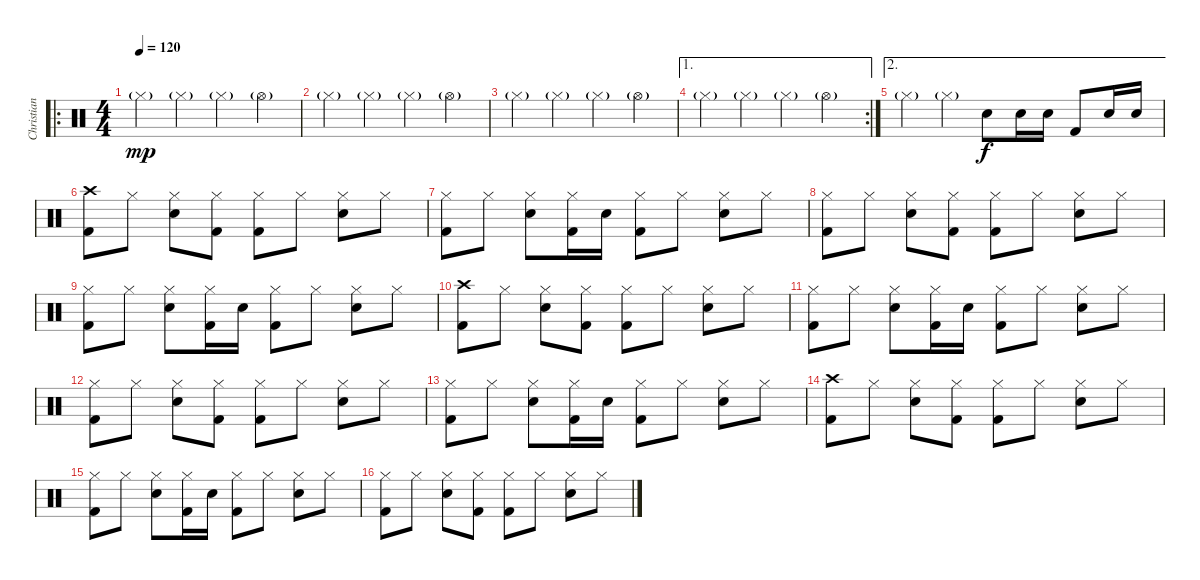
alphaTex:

\track ("Christian" "Christian") {instrument percussion}
\staff {score}
\articulation defaults
\ro
\ts (4 4)
\tempo 120
\clef neutral
\ks c "Hi-Hat (closed)"{g}.4{dy mp} "Hi-Hat (closed)"{g}.4 "Hi-Hat (closed)"{g}.4 "Hi-Hat (open)"{g}.4
|
"Hi-Hat (closed)"{g}.4 "Hi-Hat (closed)"{g}.4 "Hi-Hat (closed)"{g}.4 "Hi-Hat (open)"{g}.4 |
"Hi-Hat (closed)"{g}.4 "Hi-Hat (closed)"{g}.4 "Hi-Hat (closed)"{g}.4 "Hi-Hat (open)"{g}.4 |
\ae 1
\rc 2 "Hi-Hat (closed)"{g}.4 "Hi-Hat (closed)"{g}.4 "Hi-Hat (closed)"{g}.4 "Hi-Hat (open)"{g}.4
|
\ae 2 "Hi-Hat (closed)"{g}.4 "Hi-Hat (closed)"{g}.4 "Snare (hit) 2".8{dy f} "Snare (hit) 2".16 "Snare (hit) 2".16 "Kick (hit) 2".8 "Snare (hit) 2".16 "Snare (hit) 2".16
|
("Crash high (hit)" "Kick (hit) 2").8 "Hi-Hat (closed)".8 ("Hi-Hat (closed)" "Snare (hit) 2").8 ("Hi-Hat (closed)" "Kick (hit) 2").8 ("Hi-Hat (closed)" "Kick (hit) 2").8 "Hi-Hat (closed)".8 ("Hi-Hat (closed)" "Snare (hit) 2").8 "Hi-Hat (closed)".8 |
("Hi-Hat (closed)" "Kick (hit) 2").8 "Hi-Hat (closed)".8 ("Hi-Hat (closed)" "Snare (hit) 2").8 ("Hi-Hat (closed)" "Kick (hit) 2").16 "Snare (hit) 2".16 ("Hi-Hat (closed)" "Kick (hit) 2").8 "Hi-Hat (closed)".8 ("Hi-Hat (closed)" "Snare (hit) 2").8 "Hi-Hat (closed)".8 |
("Hi-Hat (closed)" "Kick (hit) 2").8 "Hi-Hat (closed)".8 ("Hi-Hat (closed)" "Snare (hit) 2").8 ("Hi-Hat (closed)" "Kick (hit) 2").8 ("Hi-Hat (closed)" "Kick (hit) 2").8 "Hi-Hat (closed)".8 ("Hi-Hat (closed)" "Snare (hit) 2").8 "Hi-Hat (closed)".8 |
("Hi-Hat (closed)" "Kick (hit) 2").8 "Hi-Hat (closed)".8 ("Hi-Hat (closed)" "Snare (hit) 2").8 ("Hi-Hat (closed)" "Kick (hit) 2").16 "Snare (hit) 2".16 ("Hi-Hat (closed)" "Kick (hit) 2").8 "Hi-Hat (closed)".8 ("Hi-Hat (closed)" "Snare (hit) 2").8 "Hi-Hat (closed)".8 |
("Crash high (hit)" "Kick (hit) 2").8 "Hi-Hat (closed)".8 ("Hi-Hat (closed)" "Snare (hit) 2").8 ("Hi-Hat (closed)" "Kick (hit) 2").8 ("Hi-Hat (closed)" "Kick (hit) 2").8 "Hi-Hat (closed)".8 ("Hi-Hat (closed)" "Snare (hit) 2").8 "Hi-Hat (closed)".8 |
("Hi-Hat (closed)" "Kick (hit) 2").8 "Hi-Hat (closed)".8 ("Hi-Hat (closed)" "Snare (hit) 2").8 ("Hi-Hat (closed)" "Kick (hit) 2").16 "Snare (hit) 2".16 ("Hi-Hat (closed)" "Kick (hit) 2").8 "Hi-Hat (closed)".8 ("Hi-Hat (closed)" "Snare (hit) 2").8 "Hi-Hat (closed)".8 |
("Hi-Hat (closed)" "Kick (hit) 2").8 "Hi-Hat (closed)".8 ("Hi-Hat (closed)" "Snare (hit) 2").8 ("Hi-Hat (closed)" "Kick (hit) 2").8 ("Hi-Hat (closed)" "Kick (hit) 2").8 "Hi-Hat (closed)".8 ("Hi-Hat (closed)" "Snare (hit) 2").8 "Hi-Hat (closed)".8 |
("Hi-Hat (closed)" "Kick (hit) 2").8 "Hi-Hat (closed)".8 ("Hi-Hat (closed)" "Snare (hit) 2").8 ("Hi-Hat (closed)" "Kick (hit) 2").16 "Snare (hit) 2".16 ("Hi-Hat (closed)" "Kick (hit) 2").8 "Hi-Hat (closed)".8 ("Hi-Hat (closed)" "Snare (hit) 2").8 "Hi-Hat (closed)".8 |
("Crash high (hit)" "Kick (hit) 2").8 "Hi-Hat (closed)".8 ("Hi-Hat (closed)" "Snare (hit) 2").8 ("Hi-Hat (closed)" "Kick (hit) 2").8 ("Hi-Hat (closed)" "Kick (hit) 2").8 "Hi-Hat (closed)".8 ("Hi-Hat (closed)" "Snare (hit) 2").8 "Hi-Hat (closed)".8 |
("Hi-Hat (closed)" "Kick (hit) 2").8 "Hi-Hat (closed)".8 ("Hi-Hat (closed)" "Snare (hit) 2").8 ("Hi-Hat (closed)" "Kick (hit) 2").16 "Snare (hit) 2".16 ("Hi-Hat (closed)" "Kick (hit) 2").8 "Hi-Hat (closed)".8 ("Hi-Hat (closed)" "Snare (hit) 2").8 "Hi-Hat (closed)".8 |
("Hi-Hat (closed)" "Kick (hit) 2").8 "Hi-Hat (closed)".8 ("Hi-Hat (closed)" "Snare (hit) 2").8 ("Hi-Hat (closed)" "Kick (hit) 2").8 ("Hi-Hat (closed)" "Kick (hit) 2").8 "Hi-Hat (closed)".8 ("Hi-Hat (closed)" "Snare (hit) 2").8 "Hi-Hat (closed)".8
